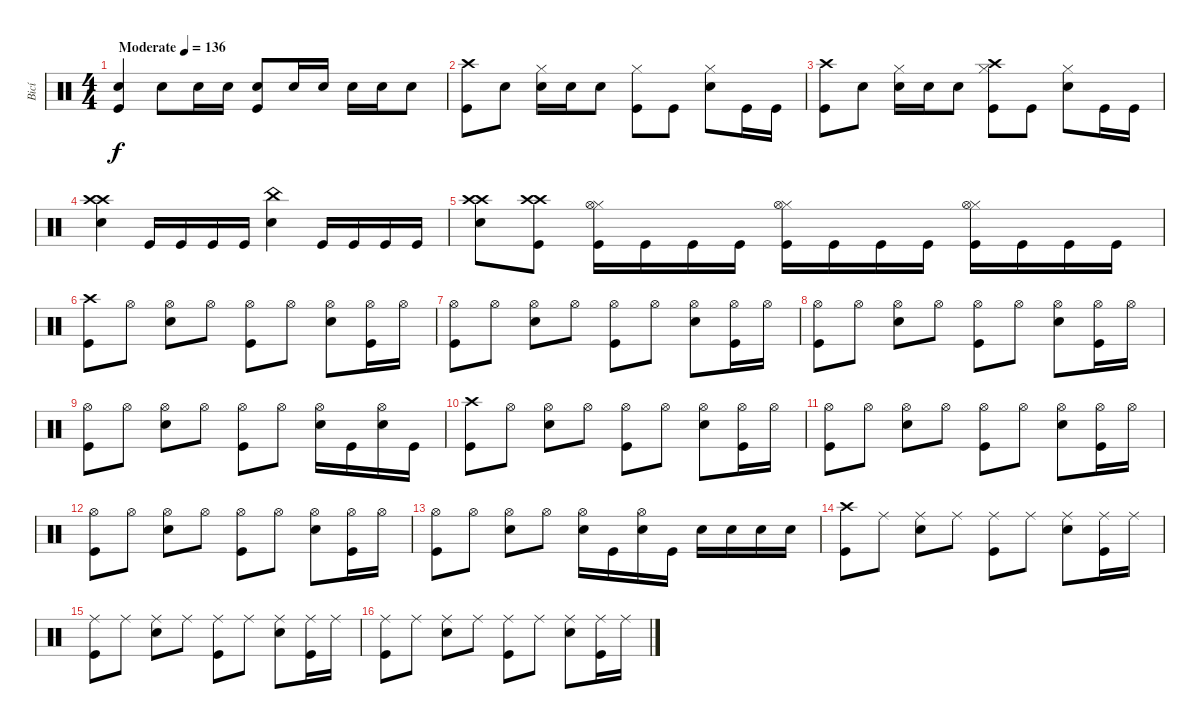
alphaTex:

\track ("Bicí" "Bicí") {instrument percussion}
\staff {score}
\articulation defaults
\ts (4 4)
\tempo (136 "Moderate")
\clef neutral
\ks c
("Snare (hit) 2" "Kick (hit)").4{dy f} "Snare (hit) 2".8 "Snare (hit) 2".16 "Snare (hit) 2".16 ("Snare (hit) 2" "Kick (hit)").8 "Snare (hit) 2".16 "Snare (hit) 2".16 "Snare (hit) 2".16 "Snare (hit) 2".16 "Snare (hit) 2".8 |
("Kick (hit)" "Crash high (hit)").8 "Snare (hit) 2".8 ("Snare (hit) 2" "Hi-Hat (closed)").16 "Snare (hit) 2".16 "Snare (hit) 2".8 ("Kick (hit)" "Hi-Hat (closed)").8 "Kick (hit)".8 ("Snare (hit) 2" "Hi-Hat (closed)").8 "Kick (hit)".16 "Kick (hit)".16 |
("Kick (hit)" "Crash high (hit)").8 "Snare (hit) 2".8 ("Snare (hit) 2" "Hi-Hat (closed)").16 "Snare (hit) 2".16 "Snare (hit) 2".8 ("Kick (hit)" "Hi-Hat (closed)" "Crash high (hit)").8 "Kick (hit)".8 ("Snare (hit) 2" "Hi-Hat (closed)").8 "Kick (hit)".16 "Kick (hit)".16 |
("Snare (hit) 2" "Crash high (hit)" "Crash high (hit)").4 "Kick (hit)".16 "Kick (hit)".16 "Kick (hit)".16 "Kick (hit)".16 ("Snare (hit) 2" "China (hit)").4 "Kick (hit)".16 "Kick (hit)".16 "Kick (hit)".16 "Kick (hit)".16 |
("Snare (hit) 2" "Crash high (hit)" "Crash high (hit)").8 ("Kick (hit)" "Crash high (hit)" "Crash high (hit)").8 ("Kick (hit)" "Hi-Hat (closed)" "Hi-Hat (open)").16 "Kick (hit)".16 "Kick (hit)".16 "Kick (hit)".16 ("Hi-Hat (closed)" "Kick (hit)" "Hi-Hat (open)").16 "Kick (hit)".16 "Kick (hit)".16 "Kick (hit)".16 ("Hi-Hat (closed)" "Kick (hit)" "Hi-Hat (open)").16 "Kick (hit)".16 "Kick (hit)".16 "Kick (hit)".16 |
("Kick (hit)" "Crash high (hit)").8 "Hi-Hat (open)".8 ("Snare (hit) 2" "Hi-Hat (open)").8 "Hi-Hat (open)".8 ("Kick (hit)" "Hi-Hat (open)").8 "Hi-Hat (open)".8 ("Snare (hit) 2" "Hi-Hat (open)").8 ("Kick (hit)" "Hi-Hat (open)").16 "Hi-Hat (open)".16 |
("Kick (hit)" "Hi-Hat (open)").8 "Hi-Hat (open)".8 ("Snare (hit) 2" "Hi-Hat (open)").8 "Hi-Hat (open)".8 ("Kick (hit)" "Hi-Hat (open)").8 "Hi-Hat (open)".8 ("Snare (hit) 2" "Hi-Hat (open)").8 ("Kick (hit)" "Hi-Hat (open)").16 "Hi-Hat (open)".16 |
("Kick (hit)" "Hi-Hat (open)").8 "Hi-Hat (open)".8 ("Snare (hit) 2" "Hi-Hat (open)").8 "Hi-Hat (open)".8 ("Kick (hit)" "Hi-Hat (open)").8 "Hi-Hat (open)".8 ("Snare (hit) 2" "Hi-Hat (open)").8 ("Kick (hit)" "Hi-Hat (open)").16 "Hi-Hat (open)".16 |
("Kick (hit)" "Hi-Hat (open)").8 "Hi-Hat (open)".8 ("Snare (hit) 2" "Hi-Hat (open)").8 "Hi-Hat (open)".8 ("Kick (hit)" "Hi-Hat (open)").8 "Hi-Hat (open)".8 ("Snare (hit) 2" "Hi-Hat (open)").16 "Kick (hit)".16 ("Snare (hit) 2" "Hi-Hat (open)").16 "Kick (hit)".16 |
("Kick (hit)" "Crash high (hit)").8 "Hi-Hat (open)".8 ("Snare (hit) 2" "Hi-Hat (open)").8 "Hi-Hat (open)".8 ("Kick (hit)" "Hi-Hat (open)").8 "Hi-Hat (open)".8 ("Snare (hit) 2" "Hi-Hat (open)").8 ("Kick (hit)" "Hi-Hat (open)").16 "Hi-Hat (open)".16 |
("Kick (hit)" "Hi-Hat (open)").8 "Hi-Hat (open)".8 ("Snare (hit) 2" "Hi-Hat (open)").8 "Hi-Hat (open)".8 ("Kick (hit)" "Hi-Hat (open)").8 "Hi-Hat (open)".8 ("Snare (hit) 2" "Hi-Hat (open)").8 ("Kick (hit)" "Hi-Hat (open)").16 "Hi-Hat (open)".16 |
("Kick (hit)" "Hi-Hat (open)").8 "Hi-Hat (open)".8 ("Snare (hit) 2" "Hi-Hat (open)").8 "Hi-Hat (open)".8 ("Kick (hit)" "Hi-Hat (open)").8 "Hi-Hat (open)".8 ("Snare (hit) 2" "Hi-Hat (open)").8 ("Kick (hit)" "Hi-Hat (open)").16 "Hi-Hat (open)".16 |
("Kick (hit)" "Hi-Hat (open)").8 "Hi-Hat (open)".8 ("Snare (hit) 2" "Hi-Hat (open)").8 "Hi-Hat (open)".8 ("Snare (hit) 2" "Hi-Hat (open)").16 "Kick (hit)".16 ("Snare (hit) 2" "Hi-Hat (open)").16 "Kick (hit)".16 "Snare (hit) 2".16 "Snare (hit) 2".16 "Snare (hit) 2".16 "Snare (hit) 2".16 |
("Kick (hit)" "Crash high (hit)").8 "Ride (middle)".8 ("Snare (hit) 2" "Ride (middle)").8 "Ride (middle)".8 ("Kick (hit)" "Ride (middle)").8 "Ride (middle)".8 ("Snare (hit) 2" "Ride (middle)").8 ("Kick (hit)" "Ride (middle)").16 "Ride (middle)".16 |
("Kick (hit)" "Ride (middle)").8 "Ride (middle)".8 ("Snare (hit) 2" "Ride (middle)").8 "Ride (middle)".8 ("Kick (hit)" "Ride (middle)").8 "Ride (middle)".8 ("Snare (hit) 2" "Ride (middle)").8 ("Kick (hit)" "Ride (middle)").16 "Ride (middle)".16 |
("Kick (hit)" "Ride (middle)").8 "Ride (middle)".8 ("Snare (hit) 2" "Ride (middle)").8 "Ride (middle)".8 ("Kick (hit)" "Ride (middle)").8 "Ride (middle)".8 ("Snare (hit) 2" "Ride (middle)").8 ("Kick (hit)" "Ride (middle)").16 "Ride (middle)".16
